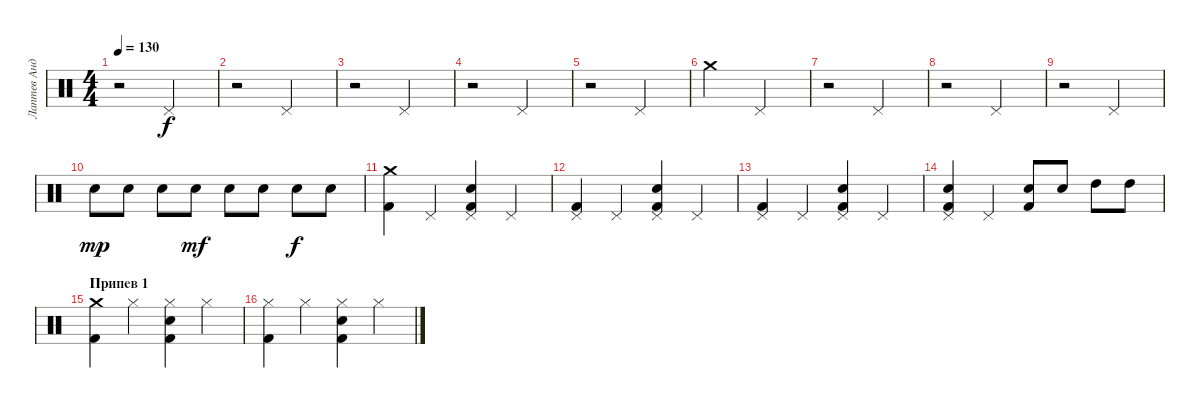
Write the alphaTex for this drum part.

\track ("Лаптев Андрей" "Лаптев Анд") {instrument percussion}
\staff {score}
\articulation defaults
\ts (4 4)
\tempo 130
\clef neutral
\ks c
r.2{dy f} "Pedal Hi-Hat (hit)".2 |
r.2 "Pedal Hi-Hat (hit)".2 |
r.2 "Pedal Hi-Hat (hit)".2 |
r.2 "Pedal Hi-Hat (hit)".2 |
r.2 "Pedal Hi-Hat (hit)".2 |
"Crash medium (hit)".2 "Pedal Hi-Hat (hit)".2 |
r.2 "Pedal Hi-Hat (hit)".2 |
r.2 "Pedal Hi-Hat (hit)".2 |
r.2 "Pedal Hi-Hat (hit)".2 |
"Electric Snare (hit)".8{dy mp} "Electric Snare (hit)".8 "Electric Snare (hit)".8 "Electric Snare (hit)".8{dy mf} "Electric Snare (hit)".8 "Electric Snare (hit)".8 "Electric Snare (hit)".8{dy f} "Electric Snare (hit)".8 |
("Crash medium (hit)" "Kick (hit) 2").4 "Pedal Hi-Hat (hit)".4 ("Kick (hit) 2" "Electric Snare (hit)" "Pedal Hi-Hat (hit)").4 "Pedal Hi-Hat (hit)".4 |
("Pedal Hi-Hat (hit)" "Kick (hit) 2").4 "Pedal Hi-Hat (hit)".4 ("Kick (hit) 2" "Electric Snare (hit)" "Pedal Hi-Hat (hit)").4 "Pedal Hi-Hat (hit)".4 |
("Pedal Hi-Hat (hit)" "Kick (hit) 2").4 "Pedal Hi-Hat (hit)".4 ("Kick (hit) 2" "Electric Snare (hit)" "Pedal Hi-Hat (hit)").4 "Pedal Hi-Hat (hit)".4 |
("Pedal Hi-Hat (hit)" "Kick (hit) 2" "Electric Snare (hit)").4 "Pedal Hi-Hat (hit)".4 ("Kick (hit) 2" "Electric Snare (hit)").8 "Electric Snare (hit)".8 "High Tom (hit)".8 "High Tom (hit)".8 |
\section ("" "Припев 1")
("Crash medium (hit)" "Kick (hit) 2").4 "Hi-Hat (closed)".4 ("Kick (hit) 2" "Electric Snare (hit)" "Hi-Hat (closed)").4 "Hi-Hat (closed)".4 |
("Hi-Hat (closed)" "Kick (hit) 2").4 "Hi-Hat (closed)".4 ("Kick (hit) 2" "Electric Snare (hit)" "Hi-Hat (closed)").4 "Hi-Hat (closed)".4
